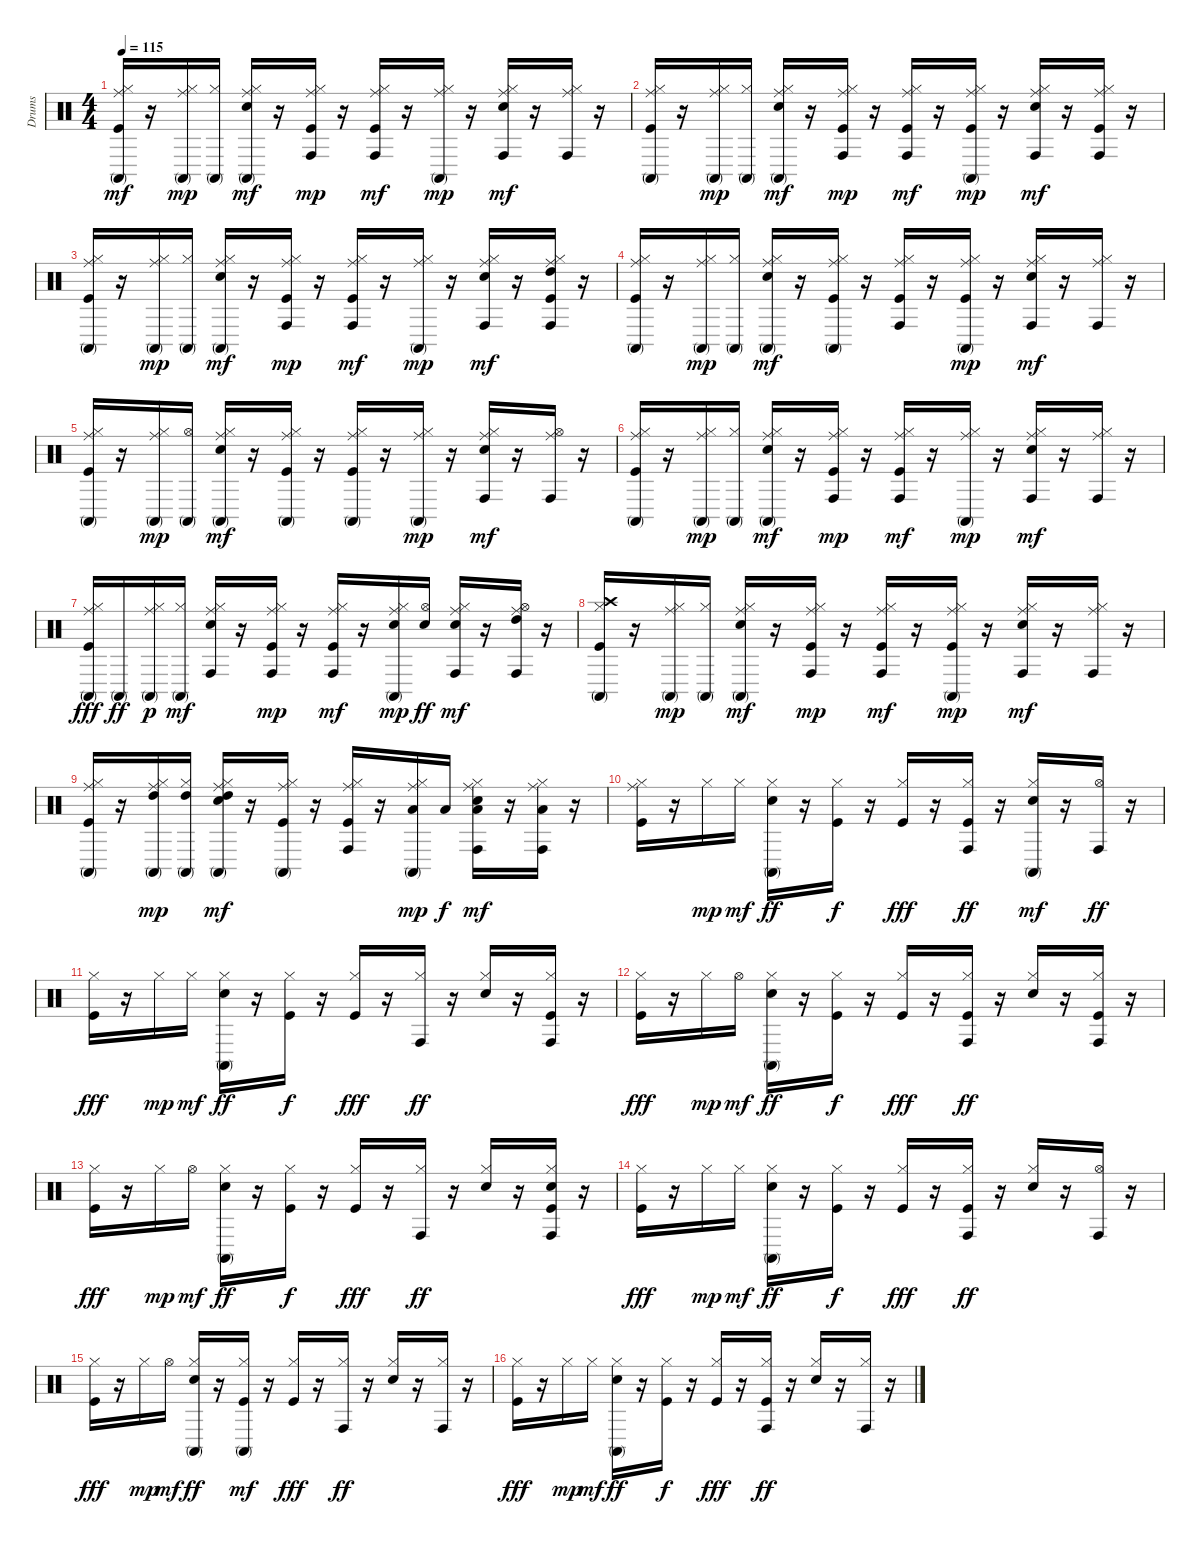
\track ("Drums" "Drums") {instrument percussion}
\staff {score}
\articulation defaults
\ts (4 4)
\tempo 115
\clef neutral
\ks c
("Kick (hit)" "Hi-Hat (closed)" "Ride (middle)" "Conga high (mute)").16{dy mf} r.16 ("Hi-Hat (closed)" "Ride (middle)" "Conga high (mute)").16{dy mp} ("Hi-Hat (closed)" "Conga high (mute)").16 ("Snare (hit) 2" "Hi-Hat (closed)" "Ride (middle)" "Conga high (mute)").16{dy mf} r.16 ("Kick (hit)" "Hi-Hat (closed)" "Ride (middle)" "Conga high (hit)").16{dy mp} r.16 ("Kick (hit)" "Hi-Hat (closed)" "Ride (middle)" "Conga high (hit)").16{dy mf} r.16 ("Hi-Hat (closed)" "Ride (middle)" "Conga high (mute)").16{dy mp} r.16 ("Snare (hit) 2" "Hi-Hat (closed)" "Ride (middle)" "Conga high (hit)").16{dy mf} r.16 ("Hi-Hat (closed)" "Ride (middle)" "Conga high (hit)").16 r.16 |
("Kick (hit)" "Hi-Hat (closed)" "Ride (middle)" "Conga high (mute)").16 r.16 ("Hi-Hat (closed)" "Ride (middle)" "Conga high (mute)").16{dy mp} ("Hi-Hat (closed)" "Conga high (mute)").16 ("Snare (hit) 2" "Hi-Hat (closed)" "Ride (middle)" "Conga high (mute)").16{dy mf} r.16 ("Kick (hit)" "Hi-Hat (closed)" "Ride (middle)" "Conga high (hit)").16{dy mp} r.16 ("Kick (hit)" "Hi-Hat (closed)" "Ride (middle)" "Conga high (hit)").16{dy mf} r.16 ("Kick (hit)" "Hi-Hat (closed)" "Ride (middle)" "Conga high (mute)").16{dy mp} r.16 ("Snare (hit) 2" "Hi-Hat (closed)" "Ride (middle)" "Conga high (hit)").16{dy mf} r.16 ("Kick (hit)" "Hi-Hat (closed)" "Ride (middle)" "Conga high (hit)").16 r.16 |
("Kick (hit)" "Hi-Hat (closed)" "Ride (middle)" "Conga high (mute)").16 r.16 ("Hi-Hat (closed)" "Ride (middle)" "Conga high (mute)").16{dy mp} ("Hi-Hat (closed)" "Conga high (mute)").16 ("Snare (hit) 2" "Hi-Hat (closed)" "Ride (middle)" "Conga high (mute)").16{dy mf} r.16 ("Kick (hit)" "Hi-Hat (closed)" "Ride (middle)" "Conga high (hit)").16{dy mp} r.16 ("Kick (hit)" "Hi-Hat (closed)" "Ride (middle)" "Conga high (hit)").16{dy mf} r.16 ("Hi-Hat (closed)" "Ride (middle)" "Conga high (mute)").16{dy mp} r.16 ("Snare (hit) 2" "Hi-Hat (closed)" "Ride (middle)" "Conga high (hit)").16{dy mf} r.16 ("Kick (hit)" "Hi-Hat (closed)" "Ride (middle)" "High Tom (hit)" "Conga high (hit)").16 r.16 |
("Kick (hit)" "Hi-Hat (closed)" "Ride (middle)" "Conga high (mute)").16 r.16 ("Hi-Hat (closed)" "Ride (middle)" "Conga high (mute)").16{dy mp} ("Hi-Hat (closed)" "Conga high (mute)").16 ("Snare (hit) 2" "Hi-Hat (closed)" "Ride (middle)" "Conga high (mute)").16{dy mf} r.16 ("Kick (hit)" "Hi-Hat (closed)" "Ride (middle)" "Conga high (mute)").16 r.16 ("Kick (hit)" "Hi-Hat (closed)" "Ride (middle)" "Conga high (hit)").16 r.16 ("Kick (hit)" "Hi-Hat (closed)" "Ride (middle)" "Conga high (mute)").16{dy mp} r.16 ("Snare (hit) 2" "Hi-Hat (closed)" "Ride (middle)" "Conga high (hit)").16{dy mf} r.16 ("Hi-Hat (closed)" "Ride (middle)" "Conga high (hit)").16 r.16 |
("Kick (hit)" "Hi-Hat (closed)" "Ride (middle)" "Conga high (mute)").16 r.16 ("Hi-Hat (closed)" "Ride (middle)" "Conga high (mute)").16{dy mp} ("Hi-Hat (open)" "Conga high (mute)").16 ("Snare (hit) 2" "Hi-Hat (closed)" "Ride (middle)" "Conga high (mute)").16{dy mf} r.16 ("Kick (hit)" "Hi-Hat (closed)" "Ride (middle)" "Conga high (mute)").16 r.16 ("Kick (hit)" "Hi-Hat (closed)" "Ride (middle)" "Conga high (mute)").16 r.16 ("Hi-Hat (closed)" "Ride (middle)" "Conga high (mute)").16{dy mp} r.16 ("Snare (hit) 2" "Hi-Hat (closed)" "Ride (middle)" "Conga high (hit)").16{dy mf} r.16 ("Hi-Hat (open)" "Ride (middle)" "Conga high (hit)").16 r.16 |
("Kick (hit)" "Hi-Hat (closed)" "Ride (middle)" "Conga high (mute)").16 r.16 ("Hi-Hat (closed)" "Ride (middle)" "Conga high (mute)").16{dy mp} ("Hi-Hat (closed)" "Conga high (mute)").16 ("Snare (hit) 2" "Hi-Hat (closed)" "Ride (middle)" "Conga high (mute)").16{dy mf} r.16 ("Kick (hit)" "Hi-Hat (closed)" "Ride (middle)" "Conga high (hit)").16{dy mp} r.16 ("Kick (hit)" "Hi-Hat (closed)" "Ride (middle)" "Conga high (hit)").16{dy mf} r.16 ("Hi-Hat (closed)" "Ride (middle)" "Conga high (mute)").16{dy mp} r.16 ("Snare (hit) 2" "Hi-Hat (closed)" "Ride (middle)" "Conga high (hit)").16{dy mf} r.16 ("Hi-Hat (closed)" "Ride (middle)" "Conga high (hit)").16 r.16 |
("Kick (hit)" "Hi-Hat (closed)" "Ride (middle)" "Conga high (mute)").16{dy fff} "Conga high (mute)".16{dy ff} ("Hi-Hat (closed)" "Ride (middle)" "Conga high (mute)").16{dy p} ("Hi-Hat (closed)" "Conga high (mute)").16{dy mf} ("Snare (hit) 2" "Hi-Hat (closed)" "Ride (middle)" "Conga high (hit)").16 r.16 ("Kick (hit)" "Hi-Hat (closed)" "Ride (middle)" "Conga high (hit)").16{dy mp} r.16 ("Kick (hit)" "Hi-Hat (closed)" "Ride (middle)" "Conga high (hit)").16{dy mf} r.16 ("Snare (hit) 2" "Hi-Hat (closed)" "Ride (middle)" "Conga high (mute)").16{dy mp} ("Snare (hit) 2" "Hi-Hat (open)").16{dy ff} ("Snare (hit) 2" "Hi-Hat (closed)" "Ride (middle)" "Conga high (hit)").16{dy mf} r.16 ("Hi-Hat (open)" "Ride (middle)" "High Tom (hit)" "Conga high (hit)").16 r.16 |
("Kick (hit)" "Hi-Hat (closed)" "Crash high (hit)" "Conga high (mute)").16 r.16 ("Hi-Hat (closed)" "Ride (middle)" "Conga high (mute)").16{dy mp} ("Hi-Hat (closed)" "Conga high (mute)").16 ("Snare (hit) 2" "Hi-Hat (closed)" "Ride (middle)" "Conga high (mute)").16{dy mf} r.16 ("Kick (hit)" "Hi-Hat (closed)" "Ride (middle)" "Conga high (hit)").16{dy mp} r.16 ("Kick (hit)" "Hi-Hat (closed)" "Ride (middle)" "Conga high (hit)").16{dy mf} r.16 ("Kick (hit)" "Hi-Hat (closed)" "Ride (middle)" "Conga high (mute)").16{dy mp} r.16 ("Snare (hit) 2" "Hi-Hat (closed)" "Ride (middle)" "Conga high (hit)").16{dy mf} r.16 ("Hi-Hat (closed)" "Ride (middle)" "Conga high (hit)").16 r.16 |
("Kick (hit)" "Hi-Hat (closed)" "Ride (middle)" "Conga high (mute)").16 r.16 ("Hi-Hat (closed)" "Ride (middle)" "High Tom (hit)" "Conga high (mute)").16{dy mp} ("Hi-Hat (closed)" "High Tom (hit)" "Conga high (mute)").16 ("Snare (hit) 2" "Hi-Hat (closed)" "Ride (middle)" "High Tom (hit)" "Conga high (mute)").16{dy mf} r.16 ("Kick (hit)" "Hi-Hat (closed)" "Ride (middle)" "Conga high (mute)").16 r.16 ("Kick (hit)" "Hi-Hat (closed)" "Ride (middle)" "Conga high (hit)").16 r.16 ("Hi-Hat (closed)" "Ride (middle)" "Low Tom (hit)" "Conga high (mute)").16{dy mp} "Low Tom (hit)".16{dy f} ("Snare (hit) 2" "Hi-Hat (closed)" "Ride (middle)" "Low Tom (hit)" "Conga high (hit)").16{dy mf} r.16 ("Hi-Hat (closed)" "Ride (middle)" "Low Floor Tom (hit)" "Conga high (hit)").16 r.16 |
("Kick (hit)" "Hi-Hat (closed)" "Ride (middle)").16 r.16 "Hi-Hat (closed)".16{dy mp} "Hi-Hat (closed)".16{dy mf} ("Snare (hit) 2" "Hi-Hat (closed)" "Conga high (mute)").16{dy ff} r.16 ("Kick (hit)" "Hi-Hat (closed)").16{dy f} r.16 ("Kick (hit)" "Hi-Hat (closed)").16{dy fff} r.16 ("Kick (hit)" "Hi-Hat (closed)" "Conga high (hit)").16{dy ff} r.16 ("Snare (hit) 2" "Hi-Hat (closed)" "Conga high (mute)").16{dy mf} r.16 ("Hi-Hat (open)" "Conga high (hit)").16{dy ff} r.16 |
("Kick (hit)" "Hi-Hat (closed)").16{dy fff} r.16 "Hi-Hat (closed)".16{dy mp} "Hi-Hat (closed)".16{dy mf} ("Snare (hit) 2" "Hi-Hat (closed)" "Conga high (mute)").16{dy ff} r.16 ("Kick (hit)" "Hi-Hat (closed)").16{dy f} r.16 ("Kick (hit)" "Hi-Hat (closed)").16{dy fff} r.16 ("Hi-Hat (closed)" "Conga high (hit)").16{dy ff} r.16 ("Snare (hit) 2" "Hi-Hat (closed)").16 r.16 ("Kick (hit)" "Hi-Hat (closed)" "Conga high (hit)").16 r.16 |
("Kick (hit)" "Hi-Hat (closed)").16{dy fff} r.16 "Hi-Hat (closed)".16{dy mp} "Hi-Hat (open)".16{dy mf} ("Snare (hit) 2" "Hi-Hat (closed)" "Conga high (mute)").16{dy ff} r.16 ("Kick (hit)" "Hi-Hat (closed)").16{dy f} r.16 ("Kick (hit)" "Hi-Hat (closed)").16{dy fff} r.16 ("Kick (hit)" "Hi-Hat (closed)" "Conga high (hit)").16{dy ff} r.16 ("Snare (hit) 2" "Hi-Hat (closed)").16 r.16 ("Kick (hit)" "Hi-Hat (closed)" "Conga high (hit)").16 r.16 |
("Kick (hit)" "Hi-Hat (closed)").16{dy fff} r.16 "Hi-Hat (closed)".16{dy mp} "Hi-Hat (open)".16{dy mf} ("Snare (hit) 2" "Hi-Hat (closed)" "Conga high (mute)").16{dy ff} r.16 ("Kick (hit)" "Hi-Hat (closed)").16{dy f} r.16 ("Kick (hit)" "Hi-Hat (closed)").16{dy fff} r.16 ("Hi-Hat (closed)" "Conga high (hit)").16{dy ff} r.16 ("Snare (hit) 2" "Hi-Hat (closed)").16 r.16 ("Kick (hit)" "Snare (hit) 2" "Hi-Hat (closed)" "Conga high (hit)").16 r.16 |
("Kick (hit)" "Hi-Hat (closed)").16{dy fff} r.16 "Hi-Hat (closed)".16{dy mp} "Hi-Hat (closed)".16{dy mf} ("Snare (hit) 2" "Hi-Hat (closed)" "Conga high (mute)").16{dy ff} r.16 ("Kick (hit)" "Hi-Hat (closed)").16{dy f} r.16 ("Kick (hit)" "Hi-Hat (closed)").16{dy fff} r.16 ("Kick (hit)" "Hi-Hat (closed)" "Conga high (hit)").16{dy ff} r.16 ("Snare (hit) 2" "Hi-Hat (closed)").16 r.16 ("Hi-Hat (open)" "Conga high (hit)").16 r.16 |
("Kick (hit)" "Hi-Hat (closed)").16{dy fff} r.16 "Hi-Hat (closed)".16{dy mp} "Hi-Hat (open)".16{dy mf} ("Snare (hit) 2" "Hi-Hat (closed)" "Conga high (mute)").16{dy ff} r.16 ("Kick (hit)" "Hi-Hat (closed)" "Conga high (mute)").16{dy mf} r.16 ("Kick (hit)" "Hi-Hat (closed)").16{dy fff} r.16 ("Hi-Hat (closed)" "Conga high (hit)").16{dy ff} r.16 ("Snare (hit) 2" "Hi-Hat (closed)").16 r.16 ("Hi-Hat (closed)" "Conga high (hit)").16 r.16 |
("Kick (hit)" "Hi-Hat (closed)").16{dy fff} r.16 "Hi-Hat (closed)".16{dy mp} "Hi-Hat (closed)".16{dy mf} ("Snare (hit) 2" "Hi-Hat (closed)" "Conga high (mute)").16{dy ff} r.16 ("Kick (hit)" "Hi-Hat (closed)").16{dy f} r.16 ("Kick (hit)" "Hi-Hat (closed)").16{dy fff} r.16 ("Kick (hit)" "Hi-Hat (closed)" "Conga high (hit)").16{dy ff} r.16 ("Snare (hit) 2" "Hi-Hat (closed)").16 r.16 ("Hi-Hat (closed)" "Conga high (hit)").16 r.16
